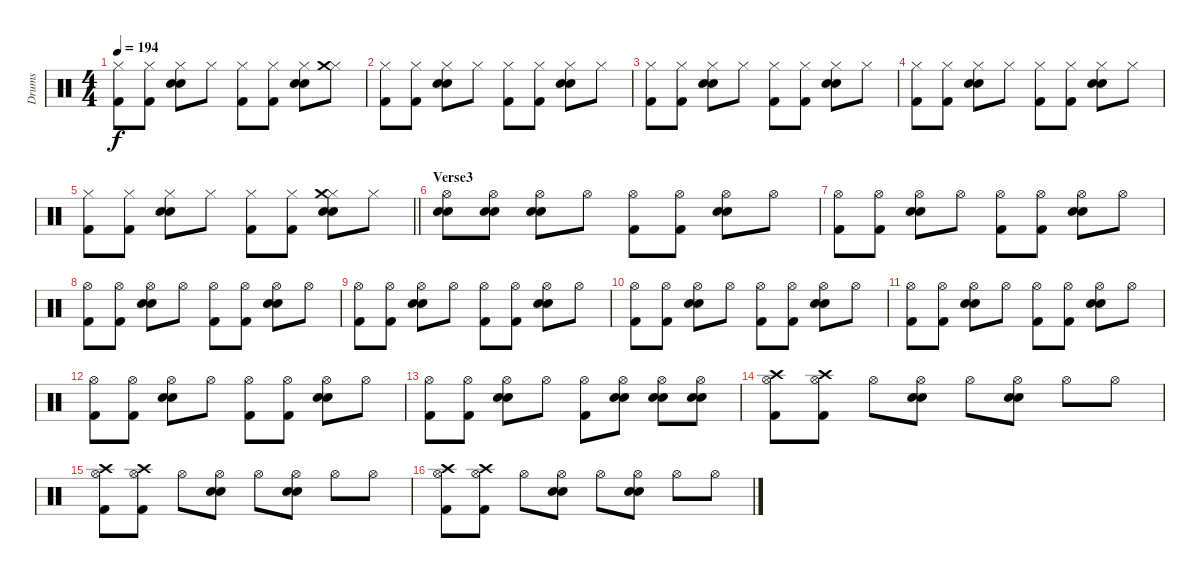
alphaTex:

\track ("Drums" "Drums") {solo instrument percussion}
\staff {score}
\articulation defaults
\ts (4 4)
\tempo 194
\clef neutral
\ks c
("Hi-Hat (closed)" "Kick (hit) 2").8{dy f} ("Hi-Hat (closed)" "Kick (hit) 2").8 ("Hi-Hat (closed)" "Electric Snare (hit)" "Snare (hit) 2").8 "Hi-Hat (closed)".8 ("Hi-Hat (closed)" "Kick (hit) 2").8 ("Hi-Hat (closed)" "Kick (hit) 2").8 ("Hi-Hat (closed)" "Electric Snare (hit)" "Snare (hit) 2").8 ("Hi-Hat (closed)" "Crash medium (hit)").8 |
("Hi-Hat (closed)" "Kick (hit) 2").8 ("Hi-Hat (closed)" "Kick (hit) 2").8 ("Hi-Hat (closed)" "Electric Snare (hit)" "Snare (hit) 2").8 "Hi-Hat (closed)".8 ("Hi-Hat (closed)" "Kick (hit) 2").8 ("Hi-Hat (closed)" "Kick (hit) 2").8 ("Hi-Hat (closed)" "Electric Snare (hit)" "Snare (hit) 2").8 "Hi-Hat (closed)".8 |
("Hi-Hat (closed)" "Kick (hit) 2").8 ("Hi-Hat (closed)" "Kick (hit) 2").8 ("Hi-Hat (closed)" "Electric Snare (hit)" "Snare (hit) 2").8 "Hi-Hat (closed)".8 ("Hi-Hat (closed)" "Kick (hit) 2").8 ("Hi-Hat (closed)" "Kick (hit) 2").8 ("Hi-Hat (closed)" "Electric Snare (hit)" "Snare (hit) 2").8 "Hi-Hat (closed)".8 |
("Hi-Hat (closed)" "Kick (hit) 2").8 ("Hi-Hat (closed)" "Kick (hit) 2").8 ("Hi-Hat (closed)" "Electric Snare (hit)" "Snare (hit) 2").8 "Hi-Hat (closed)".8 ("Hi-Hat (closed)" "Kick (hit) 2").8 ("Hi-Hat (closed)" "Kick (hit) 2").8 ("Hi-Hat (closed)" "Electric Snare (hit)" "Snare (hit) 2").8 "Hi-Hat (closed)".8 |
\barLineRight lightlight
("Hi-Hat (closed)" "Kick (hit) 2").8 ("Hi-Hat (closed)" "Kick (hit) 2").8 ("Hi-Hat (closed)" "Electric Snare (hit)" "Snare (hit) 2").8 "Hi-Hat (closed)".8 ("Hi-Hat (closed)" "Kick (hit) 2").8 ("Hi-Hat (closed)" "Kick (hit) 2").8 ("Hi-Hat (closed)" "Crash medium (hit)" "Electric Snare (hit)" "Snare (hit) 2").8 "Hi-Hat (closed)".8 |
\section ("" "Verse3")
("Hi-Hat (open)" "Electric Snare (hit)" "Snare (hit) 2").8 ("Hi-Hat (open)" "Electric Snare (hit)" "Snare (hit) 2").8 ("Hi-Hat (open)" "Electric Snare (hit)" "Snare (hit) 2").8 "Hi-Hat (open)".8 ("Hi-Hat (open)" "Kick (hit) 2").8 ("Hi-Hat (open)" "Kick (hit) 2").8 ("Hi-Hat (open)" "Electric Snare (hit)" "Snare (hit) 2").8 "Hi-Hat (open)".8 |
("Hi-Hat (open)" "Kick (hit) 2").8 ("Hi-Hat (open)" "Kick (hit) 2").8 ("Hi-Hat (open)" "Electric Snare (hit)" "Snare (hit) 2").8 "Hi-Hat (open)".8 ("Hi-Hat (open)" "Kick (hit) 2").8 ("Hi-Hat (open)" "Kick (hit) 2").8 ("Hi-Hat (open)" "Electric Snare (hit)" "Snare (hit) 2").8 "Hi-Hat (open)".8 |
("Hi-Hat (open)" "Kick (hit) 2").8 ("Hi-Hat (open)" "Kick (hit) 2").8 ("Hi-Hat (open)" "Electric Snare (hit)" "Snare (hit) 2").8 "Hi-Hat (open)".8 ("Hi-Hat (open)" "Kick (hit) 2").8 ("Hi-Hat (open)" "Kick (hit) 2").8 ("Hi-Hat (open)" "Electric Snare (hit)" "Snare (hit) 2").8 "Hi-Hat (open)".8 |
("Hi-Hat (open)" "Kick (hit) 2").8 ("Hi-Hat (open)" "Kick (hit) 2").8 ("Hi-Hat (open)" "Electric Snare (hit)" "Snare (hit) 2").8 "Hi-Hat (open)".8 ("Hi-Hat (open)" "Kick (hit) 2").8 ("Hi-Hat (open)" "Kick (hit) 2").8 ("Hi-Hat (open)" "Electric Snare (hit)" "Snare (hit) 2").8 "Hi-Hat (open)".8 |
("Hi-Hat (open)" "Kick (hit) 2").8 ("Hi-Hat (open)" "Kick (hit) 2").8 ("Hi-Hat (open)" "Electric Snare (hit)" "Snare (hit) 2").8 "Hi-Hat (open)".8 ("Hi-Hat (open)" "Kick (hit) 2").8 ("Hi-Hat (open)" "Kick (hit) 2").8 ("Hi-Hat (open)" "Electric Snare (hit)" "Snare (hit) 2").8 "Hi-Hat (open)".8 |
("Hi-Hat (open)" "Kick (hit) 2").8 ("Hi-Hat (open)" "Kick (hit) 2").8 ("Hi-Hat (open)" "Electric Snare (hit)" "Snare (hit) 2").8 "Hi-Hat (open)".8 ("Hi-Hat (open)" "Kick (hit) 2").8 ("Hi-Hat (open)" "Kick (hit) 2").8 ("Hi-Hat (open)" "Electric Snare (hit)" "Snare (hit) 2").8 "Hi-Hat (open)".8 |
("Hi-Hat (open)" "Kick (hit) 2").8 ("Hi-Hat (open)" "Kick (hit) 2").8 ("Hi-Hat (open)" "Electric Snare (hit)" "Snare (hit) 2").8 "Hi-Hat (open)".8 ("Hi-Hat (open)" "Kick (hit) 2").8 ("Hi-Hat (open)" "Kick (hit) 2").8 ("Hi-Hat (open)" "Electric Snare (hit)" "Snare (hit) 2").8 "Hi-Hat (open)".8 |
("Hi-Hat (open)" "Kick (hit) 2").8 ("Hi-Hat (open)" "Kick (hit) 2").8 ("Hi-Hat (open)" "Electric Snare (hit)" "Snare (hit) 2").8 "Hi-Hat (open)".8 ("Hi-Hat (open)" "Kick (hit) 2").8 ("Hi-Hat (open)" "Electric Snare (hit)" "Snare (hit) 2").8 ("Hi-Hat (open)" "Electric Snare (hit)" "Snare (hit) 2").8 ("Hi-Hat (open)" "Electric Snare (hit)" "Snare (hit) 2").8 |
("Hi-Hat (open)" "Crash high (hit)" "Kick (hit) 2").8 ("Hi-Hat (open)" "Crash high (hit)" "Kick (hit) 2").8 "Hi-Hat (open)".8 ("Hi-Hat (open)" "Electric Snare (hit)" "Snare (hit) 2").8 "Hi-Hat (open)".8 ("Hi-Hat (open)" "Electric Snare (hit)" "Snare (hit) 2").8 "Hi-Hat (open)".8 "Hi-Hat (open)".8 |
("Hi-Hat (open)" "Crash high (hit)" "Kick (hit) 2").8 ("Hi-Hat (open)" "Crash high (hit)" "Kick (hit) 2").8 "Hi-Hat (open)".8 ("Hi-Hat (open)" "Electric Snare (hit)" "Snare (hit) 2").8 "Hi-Hat (open)".8 ("Hi-Hat (open)" "Electric Snare (hit)" "Snare (hit) 2").8 "Hi-Hat (open)".8 "Hi-Hat (open)".8 |
("Hi-Hat (open)" "Crash high (hit)" "Kick (hit) 2").8 ("Hi-Hat (open)" "Crash high (hit)" "Kick (hit) 2").8 "Hi-Hat (open)".8 ("Hi-Hat (open)" "Electric Snare (hit)" "Snare (hit) 2").8 "Hi-Hat (open)".8 ("Hi-Hat (open)" "Electric Snare (hit)" "Snare (hit) 2").8 "Hi-Hat (open)".8 "Hi-Hat (open)".8
